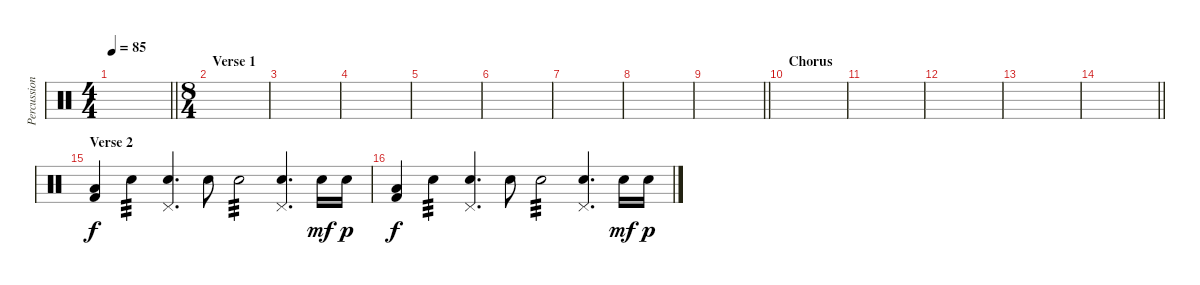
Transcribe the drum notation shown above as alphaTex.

\track ("Percussion" "Percussion") {instrument percussion}
\staff {score}
\articulation defaults
\ts (4 4)
\tempo 85
\clef neutral
\barLineRight lightlight
\ks c
|
\ts (8 4)
\section ("" "Verse 1")
|
|
|
|
|
|
|
\barLineRight lightlight
|
\section ("" "Chorus")
|
|
|
|
\barLineRight lightlight
|
\section ("" "Verse 2")
("Kick (hit) 2" "Low Floor Tom (hit)").4 "Electric Snare (hit)".4{tp 3} ("Pedal Hi-Hat (hit)" "Electric Snare (hit)").4{d} "Electric Snare (hit)".8 "Electric Snare (hit)".2{tp 3} ("Pedal Hi-Hat (hit)" "Electric Snare (hit)").4{d} "Electric Snare (hit)".16{dy mf} "Electric Snare (hit)".16{dy p} |
("Kick (hit) 2" "Low Floor Tom (hit)").4{dy f} "Electric Snare (hit)".4{tp 3} ("Pedal Hi-Hat (hit)" "Electric Snare (hit)").4{d} "Electric Snare (hit)".8 "Electric Snare (hit)".2{tp 3} ("Pedal Hi-Hat (hit)" "Electric Snare (hit)").4{d} "Electric Snare (hit)".16{dy mf} "Electric Snare (hit)".16{dy p}
